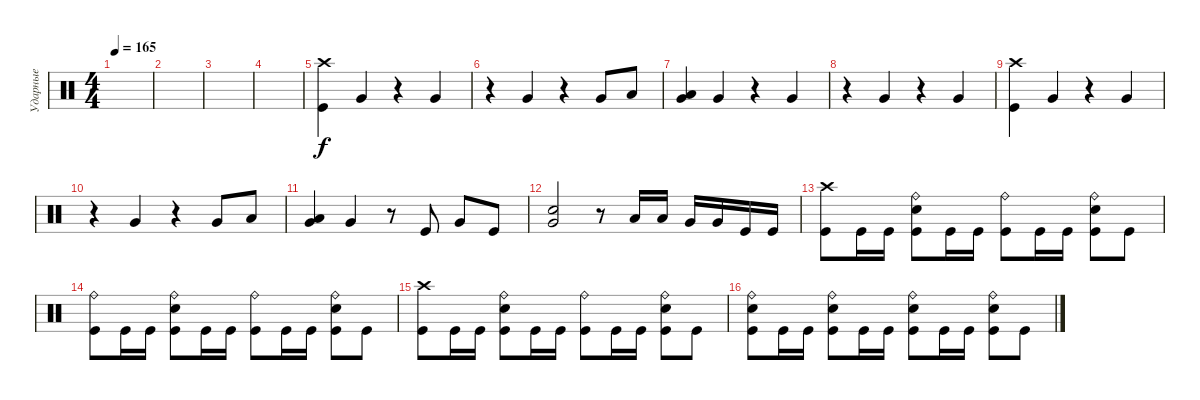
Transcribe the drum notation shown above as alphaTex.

\track ("Ударные" "Ударные") {instrument percussion}
\staff {score}
\articulation defaults
\ts (4 4)
\tempo 165
\clef neutral
\ks c
|
|
|
|
("Crash high (hit)" "Kick (hit)").4 "Very Low Tom (hit)".4 r.4 "Very Low Tom (hit)".4 |
r.4 "Very Low Tom (hit)".4 r.4 "Very Low Tom (hit)".8 "Low Tom (hit)".8 |
("Very Low Tom (hit)" "Low Tom (hit)").4 "Very Low Tom (hit)".4 r.4 "Very Low Tom (hit)".4 |
r.4 "Very Low Tom (hit)".4 r.4 "Very Low Tom (hit)".4 |
("Crash high (hit)" "Kick (hit)").4 "Very Low Tom (hit)".4 r.4 "Very Low Tom (hit)".4 |
r.4 "Very Low Tom (hit)".4 r.4 "Very Low Tom (hit)".8 "Low Tom (hit)".8 |
("Very Low Tom (hit)" "Low Tom (hit)").4 "Very Low Tom (hit)".4 r.8 "Kick (hit)".8 "Very Low Tom (hit)".8 "Kick (hit)".8 |
("Very Low Tom (hit)" "Electric Snare (hit)").2 r.8 "Low Tom (hit)".16 "Low Tom (hit)".16 "Very Low Tom (hit)".16 "Very Low Tom (hit)".16 "Kick (hit)".16 "Kick (hit)".16 |
("Crash high (hit)" "Kick (hit)").8 "Kick (hit)".16 "Kick (hit)".16 ("Ride (bell)" "Electric Snare (hit)" "Kick (hit)").8 "Kick (hit)".16 "Kick (hit)".16 ("Ride (bell)" "Kick (hit)").8 "Kick (hit)".16 "Kick (hit)".16 ("Ride (bell)" "Electric Snare (hit)" "Kick (hit)").8 "Kick (hit)".8 |
("Ride (bell)" "Kick (hit)").8 "Kick (hit)".16 "Kick (hit)".16 ("Ride (bell)" "Electric Snare (hit)" "Kick (hit)").8 "Kick (hit)".16 "Kick (hit)".16 ("Ride (bell)" "Kick (hit)").8 "Kick (hit)".16 "Kick (hit)".16 ("Ride (bell)" "Electric Snare (hit)" "Kick (hit)").8 "Kick (hit)".8 |
("Crash high (hit)" "Kick (hit)").8 "Kick (hit)".16 "Kick (hit)".16 ("Ride (bell)" "Electric Snare (hit)" "Kick (hit)").8 "Kick (hit)".16 "Kick (hit)".16 ("Ride (bell)" "Kick (hit)").8 "Kick (hit)".16 "Kick (hit)".16 ("Ride (bell)" "Electric Snare (hit)" "Kick (hit)").8 "Kick (hit)".8 |
("Ride (bell)" "Electric Snare (hit)" "Kick (hit)").8 "Kick (hit)".16 "Kick (hit)".16 ("Ride (bell)" "Electric Snare (hit)" "Kick (hit)").8 "Kick (hit)".16 "Kick (hit)".16 ("Ride (bell)" "Electric Snare (hit)" "Kick (hit)").8 "Kick (hit)".16 "Kick (hit)".16 ("Ride (bell)" "Electric Snare (hit)" "Kick (hit)").8 "Kick (hit)".8
